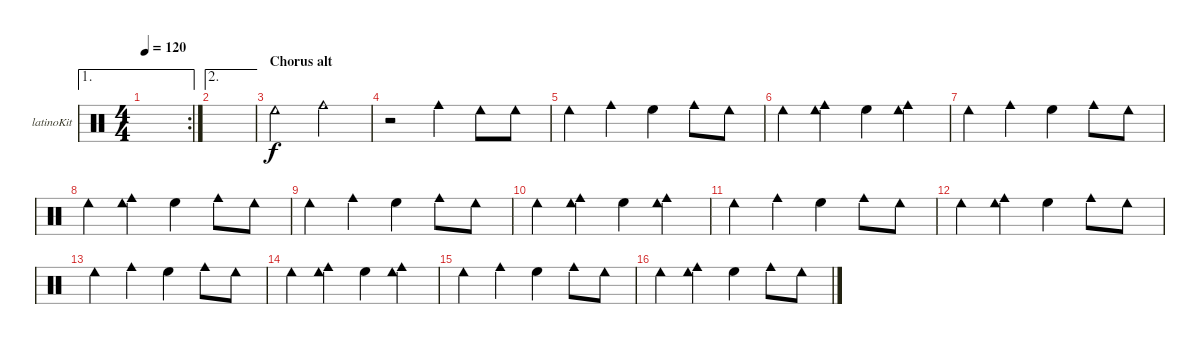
\defaultSystemsLayout 4
\bracketExtendMode groupsimilarinstruments
\firstSystemTrackNameOrientation horizontal
\otherSystemsTrackNameOrientation horizontal
\track ("Kit-Latino" "latinoKit") {instrument percussion}
\staff {score}
\articulation defaults
\ae 1
\rc 2
\ts (4 4)
\tempo 120
\clef neutral
\scale
0.355932
\ks c
|
\ae 2
\scale
0.333333 |
\section ("" "Chorus alt")
\scale
0.333333 "Cowbell low (hit)".2 "Cowbell medium (hit)".2 |
\scale
0.333333 r.2 "Cowbell medium (hit)".4 "Cowbell low (hit)".8 "Cowbell low (hit)".8 |
\scale
0.333333 "Cowbell low (hit)".4 "Cowbell medium (hit)".4 "High Floor Tom (hit)".4 "Cowbell medium (hit)".8 "Cowbell low (hit)".8 |
\scale
0.333333 "Cowbell low (hit)".4 ("Cowbell medium (hit)" "Cowbell low (hit)").4 "High Floor Tom (hit)".4 ("Cowbell medium (hit)" "Cowbell low (hit)").4 |
\scale
0.333333 "Cowbell low (hit)".4 "Cowbell medium (hit)".4 "High Floor Tom (hit)".4 "Cowbell medium (hit)".8 "Cowbell low (hit)".8 |
\scale
0.333333 "Cowbell low (hit)".4 ("Cowbell medium (hit)" "Cowbell low (hit)").4 "High Floor Tom (hit)".4 "Cowbell medium (hit)".8 "Cowbell low (hit)".8 |
\scale
0.333333 "Cowbell low (hit)".4 "Cowbell medium (hit)".4 "High Floor Tom (hit)".4 "Cowbell medium (hit)".8 "Cowbell low (hit)".8 |
\scale
0.333333 "Cowbell low (hit)".4 ("Cowbell medium (hit)" "Cowbell low (hit)").4 "High Floor Tom (hit)".4 ("Cowbell medium (hit)" "Cowbell low (hit)").4 |
\scale
0.333333 "Cowbell low (hit)".4 "Cowbell medium (hit)".4 "High Floor Tom (hit)".4 "Cowbell medium (hit)".8 "Cowbell low (hit)".8 |
\scale
0.333333 "Cowbell low (hit)".4 ("Cowbell medium (hit)" "Cowbell low (hit)").4 "High Floor Tom (hit)".4 "Cowbell medium (hit)".8 "Cowbell low (hit)".8 |
\scale
0.333333 "Cowbell low (hit)".4 "Cowbell medium (hit)".4 "High Floor Tom (hit)".4 "Cowbell medium (hit)".8 "Cowbell low (hit)".8 |
\scale
0.333333 "Cowbell low (hit)".4 ("Cowbell medium (hit)" "Cowbell low (hit)").4 "High Floor Tom (hit)".4 ("Cowbell medium (hit)" "Cowbell low (hit)").4 |
\scale
0.333333 "Cowbell low (hit)".4 "Cowbell medium (hit)".4 "High Floor Tom (hit)".4 "Cowbell medium (hit)".8 "Cowbell low (hit)".8 |
\scale
0.333333 "Cowbell low (hit)".4 ("Cowbell medium (hit)" "Cowbell low (hit)").4 "High Floor Tom (hit)".4 "Cowbell medium (hit)".8 "Cowbell low (hit)".8
